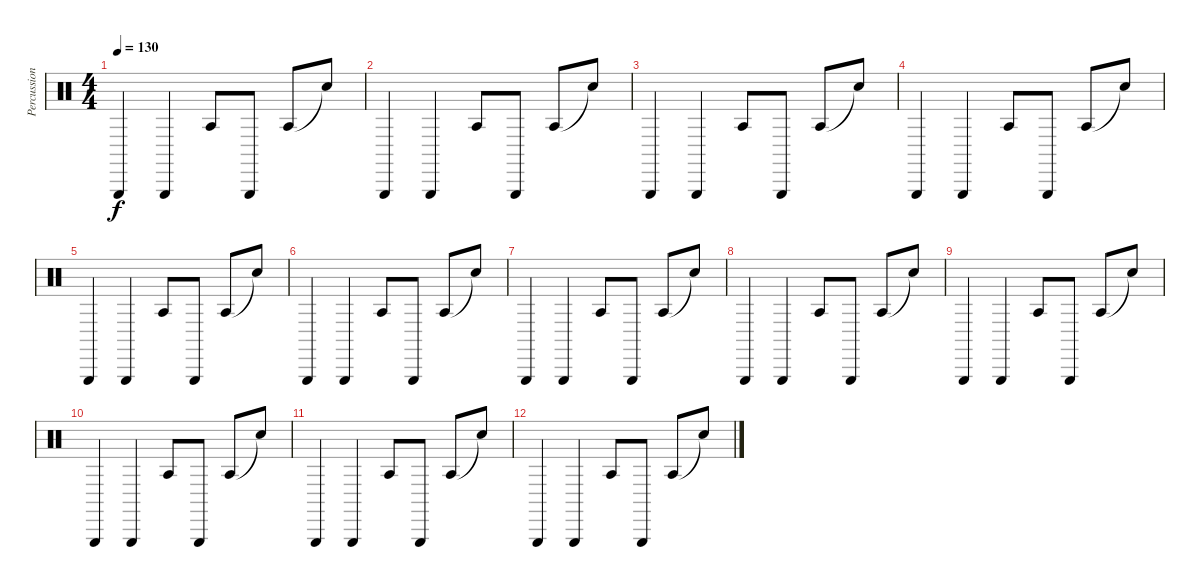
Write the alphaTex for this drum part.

\track ("Percussion" "Percussion") {instrument percussion}
\staff {score}
\articulation defaults
\ts (4 4)
\tempo 130
\clef neutral
\ks c "Triangle (hit)".4{dy f} "Triangle (hit)".4 "Agogo tow (hit)".8 "Triangle (hit)".8 "Agogo tow (hit)".8 "Snare (hit)"{t}.8
|
"Triangle (hit)".4 "Triangle (hit)".4 "Agogo tow (hit)".8 "Triangle (hit)".8 "Agogo tow (hit)".8 "Snare (hit)"{t}.8 |
"Triangle (hit)".4 "Triangle (hit)".4 "Agogo tow (hit)".8 "Triangle (hit)".8 "Agogo tow (hit)".8 "Snare (hit)"{t}.8 |
"Triangle (hit)".4 "Triangle (hit)".4 "Agogo tow (hit)".8 "Triangle (hit)".8 "Agogo tow (hit)".8 "Snare (hit)"{t}.8 |
"Triangle (hit)".4 "Triangle (hit)".4 "Agogo tow (hit)".8 "Triangle (hit)".8 "Agogo tow (hit)".8 "Snare (hit)"{t}.8 |
"Triangle (hit)".4 "Triangle (hit)".4 "Agogo tow (hit)".8 "Triangle (hit)".8 "Agogo tow (hit)".8 "Snare (hit)"{t}.8 |
"Triangle (hit)".4 "Triangle (hit)".4 "Agogo tow (hit)".8 "Triangle (hit)".8 "Agogo tow (hit)".8 "Snare (hit)"{t}.8 |
"Triangle (hit)".4 "Triangle (hit)".4 "Agogo tow (hit)".8 "Triangle (hit)".8 "Agogo tow (hit)".8 "Snare (hit)"{t}.8 |
"Triangle (hit)".4 "Triangle (hit)".4 "Agogo tow (hit)".8 "Triangle (hit)".8 "Agogo tow (hit)".8 "Snare (hit)"{t}.8 |
"Triangle (hit)".4 "Triangle (hit)".4 "Agogo tow (hit)".8 "Triangle (hit)".8 "Agogo tow (hit)".8 "Snare (hit)"{t}.8 |
"Triangle (hit)".4 "Triangle (hit)".4 "Agogo tow (hit)".8 "Triangle (hit)".8 "Agogo tow (hit)".8 "Snare (hit)"{t}.8 |
"Triangle (hit)".4 "Triangle (hit)".4 "Agogo tow (hit)".8 "Triangle (hit)".8 "Agogo tow (hit)".8 "Snare (hit)"{t}.8
